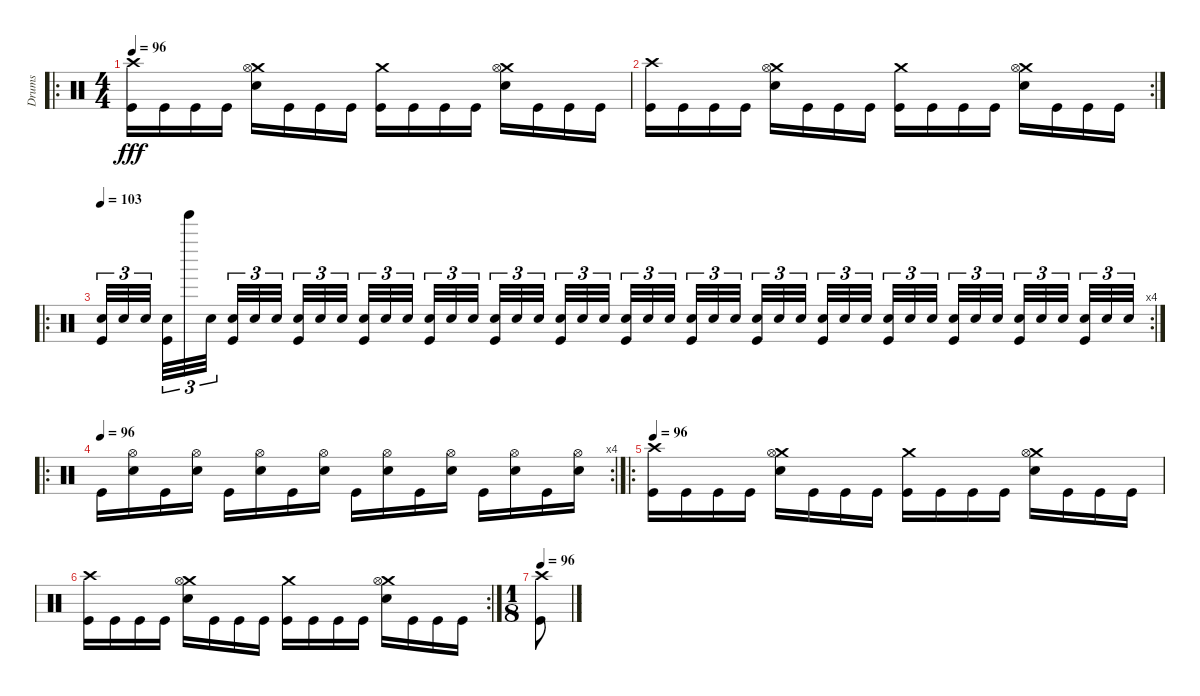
\track ("Drums" "Drums") {instrument percussion}
\staff {score}
\articulation defaults
\ro
\ts (4 4)
\tempo 96
\clef neutral
\ks c
("Crash high (hit)" "Kick (hit)").16{dy fff} "Kick (hit)".16 "Kick (hit)".16 "Kick (hit)".16 ("Crash medium (hit)" "Hi-Hat (open)" "Snare (hit) 2").16 "Kick (hit)".16 "Kick (hit)".16 "Kick (hit)".16 ("Crash medium (hit)" "Kick (hit)").16 "Kick (hit)".16 "Kick (hit)".16 "Kick (hit)".16 ("Crash medium (hit)" "Hi-Hat (open)" "Snare (hit) 2").16 "Kick (hit)".16 "Kick (hit)".16 "Kick (hit)".16 |
\rc 2
("Crash high (hit)" "Kick (hit)").16 "Kick (hit)".16 "Kick (hit)".16 "Kick (hit)".16 ("Crash medium (hit)" "Hi-Hat (open)" "Snare (hit) 2").16 "Kick (hit)".16 "Kick (hit)".16 "Kick (hit)".16 ("Crash medium (hit)" "Kick (hit)").16 "Kick (hit)".16 "Kick (hit)".16 "Kick (hit)".16 ("Crash medium (hit)" "Hi-Hat (open)" "Snare (hit) 2").16 "Kick (hit)".16 "Kick (hit)".16 "Kick (hit)".16 |
\ro
\rc 4
\tempo 103
("Kick (hit)" "Snare (hit) 2").32{tu (3 2)} "Snare (hit) 2".32{tu (3 2)} "Snare (hit) 2".32{tu (3 2)} ("Kick (hit)" "Snare (hit) 2").32{tu (3 2)} "Tinkle Bell (hit)".32{tu (3 2)} "Snare (hit) 2".32{tu (3 2)} ("Kick (hit)" "Snare (hit) 2").32{tu (3 2)} "Snare (hit) 2".32{tu (3 2)} "Snare (hit) 2".32{tu (3 2)} ("Kick (hit)" "Snare (hit) 2").32{tu (3 2)} "Snare (hit) 2".32{tu (3 2)} "Snare (hit) 2".32{tu (3 2)} ("Kick (hit)" "Snare (hit) 2").32{tu (3 2)} "Snare (hit) 2".32{tu (3 2)} "Snare (hit) 2".32{tu (3 2)} ("Kick (hit)" "Snare (hit) 2").32{tu (3 2)} "Snare (hit) 2".32{tu (3 2)} "Snare (hit) 2".32{tu (3 2)} ("Kick (hit)" "Snare (hit) 2").32{tu (3 2)} "Snare (hit) 2".32{tu (3 2)} "Snare (hit) 2".32{tu (3 2)} ("Kick (hit)" "Snare (hit) 2").32{tu (3 2)} "Snare (hit) 2".32{tu (3 2)} "Snare (hit) 2".32{tu (3 2)} ("Kick (hit)" "Snare (hit) 2").32{tu (3 2)} "Snare (hit) 2".32{tu (3 2)} "Snare (hit) 2".32{tu (3 2)} ("Kick (hit)" "Snare (hit) 2").32{tu (3 2)} "Snare (hit) 2".32{tu (3 2)} "Snare (hit) 2".32{tu (3 2)} ("Kick (hit)" "Snare (hit) 2").32{tu (3 2)} "Snare (hit) 2".32{tu (3 2)} "Snare (hit) 2".32{tu (3 2)} ("Kick (hit)" "Snare (hit) 2").32{tu (3 2)} "Snare (hit) 2".32{tu (3 2)} "Snare (hit) 2".32{tu (3 2)} ("Kick (hit)" "Snare (hit) 2").32{tu (3 2)} "Snare (hit) 2".32{tu (3 2)} "Snare (hit) 2".32{tu (3 2)} ("Kick (hit)" "Snare (hit) 2").32{tu (3 2)} "Snare (hit) 2".32{tu (3 2)} "Snare (hit) 2".32{tu (3 2)} ("Kick (hit)" "Snare (hit) 2").32{tu (3 2)} "Snare (hit) 2".32{tu (3 2)} "Snare (hit) 2".32{tu (3 2)} ("Kick (hit)" "Snare (hit) 2").32{tu (3 2)} "Snare (hit) 2".32{tu (3 2)} "Snare (hit) 2".32{tu (3 2)} |
\ro
\rc 4
\tempo (96)
"Kick (hit)".16 ("Hi-Hat (open)" "Snare (hit) 2").16 "Kick (hit)".16 ("Hi-Hat (open)" "Snare (hit) 2").16 "Kick (hit)".16 ("Hi-Hat (open)" "Snare (hit) 2").16 "Kick (hit)".16 ("Hi-Hat (open)" "Snare (hit) 2").16 "Kick (hit)".16 ("Hi-Hat (open)" "Snare (hit) 2").16 "Kick (hit)".16 ("Hi-Hat (open)" "Snare (hit) 2").16 "Kick (hit)".16 ("Hi-Hat (open)" "Snare (hit) 2").16 "Kick (hit)".16 ("Hi-Hat (open)" "Snare (hit) 2").16 |
\ro
\tempo 96
("Crash high (hit)" "Kick (hit)").16 "Kick (hit)".16 "Kick (hit)".16 "Kick (hit)".16 ("Crash medium (hit)" "Hi-Hat (open)" "Snare (hit) 2").16 "Kick (hit)".16 "Kick (hit)".16 "Kick (hit)".16 ("Crash medium (hit)" "Kick (hit)").16 "Kick (hit)".16 "Kick (hit)".16 "Kick (hit)".16 ("Crash medium (hit)" "Hi-Hat (open)" "Snare (hit) 2").16 "Kick (hit)".16 "Kick (hit)".16 "Kick (hit)".16 |
\rc 2
("Crash high (hit)" "Kick (hit)").16 "Kick (hit)".16 "Kick (hit)".16 "Kick (hit)".16 ("Crash medium (hit)" "Hi-Hat (open)" "Snare (hit) 2").16 "Kick (hit)".16 "Kick (hit)".16 "Kick (hit)".16 ("Crash medium (hit)" "Kick (hit)").16 "Kick (hit)".16 "Kick (hit)".16 "Kick (hit)".16 ("Crash medium (hit)" "Hi-Hat (open)" "Snare (hit) 2").16 "Kick (hit)".16 "Kick (hit)".16 "Kick (hit)".16 |
\ts (1 8)
\tempo 96
("Crash high (hit)" "Kick (hit)").8
